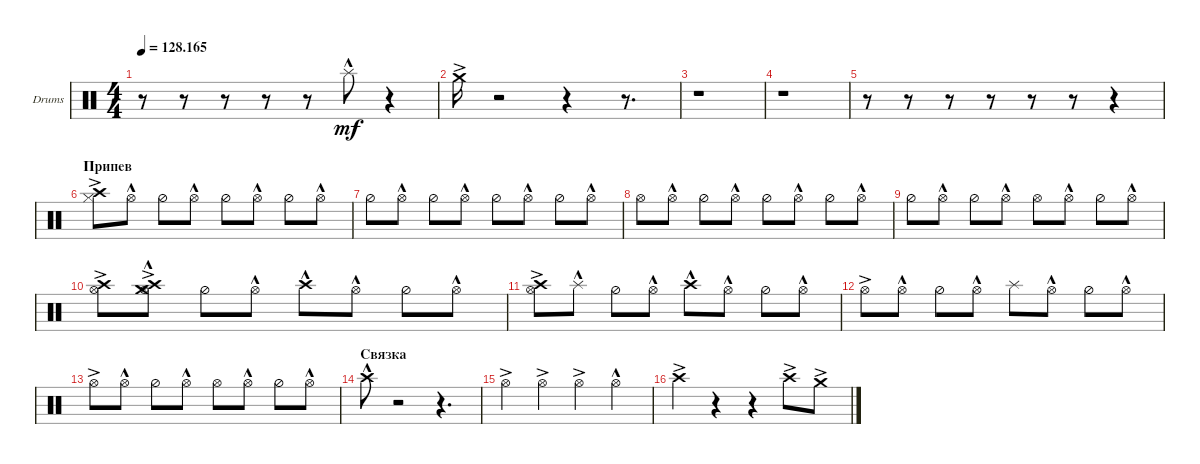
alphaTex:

\defaultSystemsLayout 4
\bracketExtendMode groupsimilarinstruments
\firstSystemTrackNameOrientation horizontal
\otherSystemsTrackNameOrientation horizontal
\track ("Drumkit" "Drums") {instrument percussion}
\staff {score}
\articulation defaults
\ts (4 4)
\tempo
128.165
\accidentals auto
\clef neutral
\ottava regular
\simile none
\ks c
r.8{dy mf} r.8 r.8 r.8 r.8 "Splash (hit)"{hac}.8 r.4 |
"Crash medium (hit)"{ac}.16 r.2 r.4 r.8{d} |
r.1 |
r.1 |
r.8 r.8 r.8 r.8 r.8 r.8 r.4 |
\section ("" "Припев")
("Hi-Hat (closed)" "Crash high (hit)"{ac}).8 "Hi-Hat (open)"{hac}.8 "Hi-Hat (half)".8 "Hi-Hat (open)"{hac}.8 "Hi-Hat (half)".8 "Hi-Hat (open)"{hac}.8 "Hi-Hat (half)".8 "Hi-Hat (open)"{hac}.8 |
"Hi-Hat (half)".8 "Hi-Hat (open)"{hac}.8 "Hi-Hat (half)".8 "Hi-Hat (open)"{hac}.8 "Hi-Hat (half)".8 "Hi-Hat (open)"{hac}.8 "Hi-Hat (half)".8 "Hi-Hat (open)"{hac}.8 |
"Hi-Hat (open)".8 "Hi-Hat (open)"{hac}.8 "Hi-Hat (half)".8 "Hi-Hat (open)"{hac}.8 "Hi-Hat (half)".8 "Hi-Hat (open)"{hac}.8 "Hi-Hat (half)".8 "Hi-Hat (open)"{hac}.8 |
"Hi-Hat (half)".8 "Hi-Hat (open)"{hac}.8 "Hi-Hat (half)".8 "Hi-Hat (open)"{hac}.8 "Hi-Hat (open)".8 "Hi-Hat (open)"{hac}.8 "Hi-Hat (half)".8 "Hi-Hat (open)"{hac}.8 |
("Hi-Hat (open)"{ac} "Crash high (hit)"{ac}).8 ("Hi-Hat (open)"{ac} "Crash medium (hit)"{hac} "Crash high (hit)"{ac}).8 "Hi-Hat (half)".8 "Hi-Hat (open)"{hac}.8 "Crash high (hit)"{hac}.8 "Hi-Hat (open)"{hac}.8 "Hi-Hat (half)".8 "Hi-Hat (open)"{hac}.8 |
("Hi-Hat (open)"{ac} "Crash high (hit)"{ac}).8 "Splash (hit)"{hac}.8 "Hi-Hat (half)".8 "Hi-Hat (open)"{hac}.8 "Crash high (hit)"{hac}.8 "Hi-Hat (open)"{hac}.8 "Hi-Hat (half)".8 "Hi-Hat (open)"{hac}.8 |
"Hi-Hat (open)"{ac}.8 "Hi-Hat (open)"{hac}.8 "Hi-Hat (half)".8 "Hi-Hat (open)"{hac}.8 "Splash (hit)".8 "Hi-Hat (open)"{hac}.8 "Hi-Hat (half)".8 "Hi-Hat (open)"{hac}.8 |
"Hi-Hat (open)"{ac}.8 "Hi-Hat (open)"{hac}.8 "Hi-Hat (half)".8 "Hi-Hat (open)"{hac}.8 "Hi-Hat (open)".8 "Hi-Hat (open)"{hac}.8 "Hi-Hat (half)".8 "Hi-Hat (open)"{hac}.8 |
\section ("" "Связка")
"Crash high (hit)"{hac}.8 r.2 r.4{d} |
"Hi-Hat (open)"{ac}.4 "Hi-Hat (open)"{ac}.4 "Hi-Hat (open)"{ac}.4 "Hi-Hat (open)"{hac}.4 |
"Crash high (hit)"{ac}.4 r.4 r.4 "Crash high (hit)"{ac}.8 "Crash medium (hit)"{ac}.8
